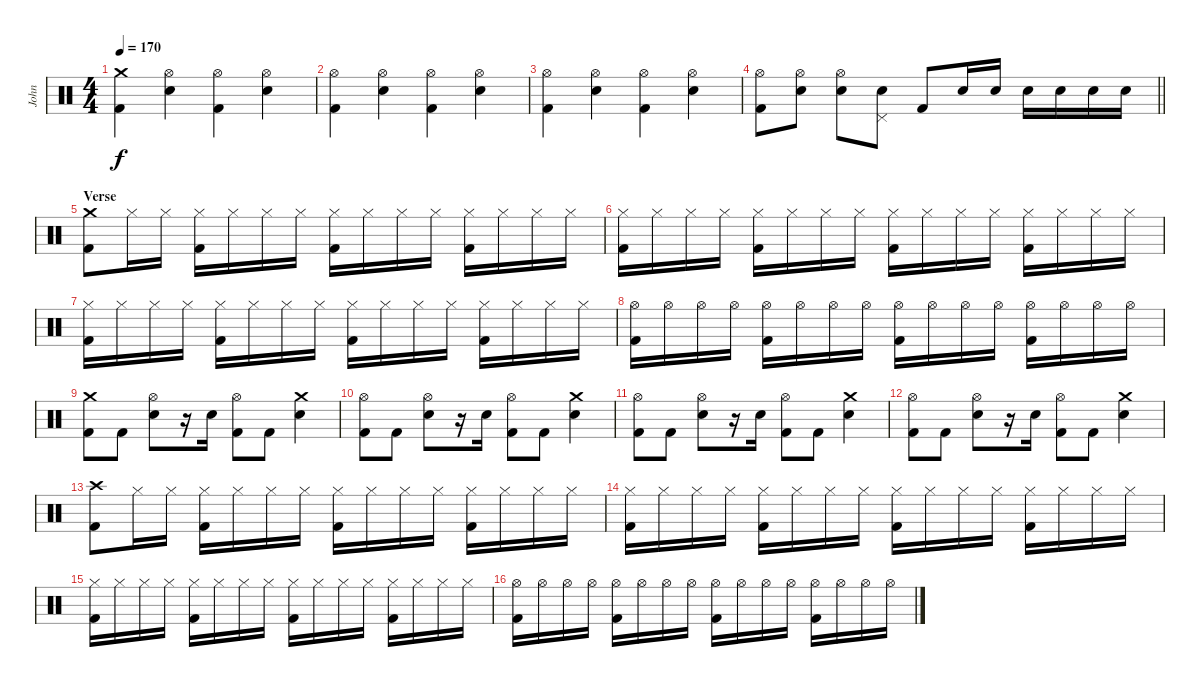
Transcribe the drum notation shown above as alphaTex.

\track ("John" "John") {instrument percussion}
\staff {score}
\articulation defaults
\ts (4 4)
\tempo 170
\clef neutral
\ks c
("Crash medium (hit)" "Kick (hit) 2").4{dy f} ("Hi-Hat (open)" "Electric Snare (hit)").4 ("Hi-Hat (open)" "Kick (hit) 2").4 ("Hi-Hat (open)" "Electric Snare (hit)").4 |
("Hi-Hat (open)" "Kick (hit) 2").4 ("Hi-Hat (open)" "Electric Snare (hit)").4 ("Hi-Hat (open)" "Kick (hit) 2").4 ("Hi-Hat (open)" "Electric Snare (hit)").4 |
("Hi-Hat (open)" "Kick (hit) 2").4 ("Hi-Hat (open)" "Electric Snare (hit)").4 ("Hi-Hat (open)" "Kick (hit) 2").4 ("Hi-Hat (open)" "Electric Snare (hit)").4 |
\barLineRight lightlight
("Hi-Hat (open)" "Kick (hit) 2").8 ("Hi-Hat (open)" "Electric Snare (hit)").8 ("Hi-Hat (open)" "Electric Snare (hit)").8 ("Pedal Hi-Hat (hit)" "Electric Snare (hit)").8 "Kick (hit) 2".8 "Electric Snare (hit)".16 "Electric Snare (hit)".16 "Electric Snare (hit)".16 "Electric Snare (hit)".16 "Electric Snare (hit)".16 "Electric Snare (hit)".16 |
\section ("" "Verse")
("Crash medium (hit)" "Kick (hit) 2").8 "Hi-Hat (closed)".16 "Hi-Hat (closed)".16 ("Hi-Hat (closed)" "Kick (hit) 2").16 "Hi-Hat (closed)".16 "Hi-Hat (closed)".16 "Hi-Hat (closed)".16 ("Hi-Hat (closed)" "Kick (hit) 2").16 "Hi-Hat (closed)".16 "Hi-Hat (closed)".16 "Hi-Hat (closed)".16 ("Hi-Hat (closed)" "Kick (hit) 2").16 "Hi-Hat (closed)".16 "Hi-Hat (closed)".16 "Hi-Hat (closed)".16 |
("Hi-Hat (closed)" "Kick (hit) 2").16 "Hi-Hat (closed)".16 "Hi-Hat (closed)".16 "Hi-Hat (closed)".16 ("Hi-Hat (closed)" "Kick (hit) 2").16 "Hi-Hat (closed)".16 "Hi-Hat (closed)".16 "Hi-Hat (closed)".16 ("Hi-Hat (closed)" "Kick (hit) 2").16 "Hi-Hat (closed)".16 "Hi-Hat (closed)".16 "Hi-Hat (closed)".16 ("Hi-Hat (closed)" "Kick (hit) 2").16 "Hi-Hat (closed)".16 "Hi-Hat (closed)".16 "Hi-Hat (closed)".16 |
("Hi-Hat (closed)" "Kick (hit) 2").16 "Hi-Hat (closed)".16 "Hi-Hat (closed)".16 "Hi-Hat (closed)".16 ("Hi-Hat (closed)" "Kick (hit) 2").16 "Hi-Hat (closed)".16 "Hi-Hat (closed)".16 "Hi-Hat (closed)".16 ("Hi-Hat (closed)" "Kick (hit) 2").16 "Hi-Hat (closed)".16 "Hi-Hat (closed)".16 "Hi-Hat (closed)".16 ("Hi-Hat (closed)" "Kick (hit) 2").16 "Hi-Hat (closed)".16 "Hi-Hat (closed)".16 "Hi-Hat (closed)".16 |
("Hi-Hat (open)" "Kick (hit) 2").16 "Hi-Hat (open)".16 "Hi-Hat (open)".16 "Hi-Hat (open)".16 ("Hi-Hat (open)" "Kick (hit) 2").16 "Hi-Hat (open)".16 "Hi-Hat (open)".16 "Hi-Hat (open)".16 ("Hi-Hat (open)" "Kick (hit) 2").16 "Hi-Hat (open)".16 "Hi-Hat (open)".16 "Hi-Hat (open)".16 ("Hi-Hat (open)" "Kick (hit) 2").16 "Hi-Hat (open)".16 "Hi-Hat (open)".16 "Hi-Hat (open)".16 |
("Crash medium (hit)" "Kick (hit) 2").8 "Kick (hit) 2".8 ("Hi-Hat (open)" "Electric Snare (hit)").8 r.16 "Electric Snare (hit)".16 ("Hi-Hat (open)" "Kick (hit) 2").8 "Kick (hit) 2".8 ("Crash medium (hit)" "Electric Snare (hit)").4 |
("Hi-Hat (open)" "Kick (hit) 2").8 "Kick (hit) 2".8 ("Hi-Hat (open)" "Electric Snare (hit)").8 r.16 "Electric Snare (hit)".16 ("Hi-Hat (open)" "Kick (hit) 2").8 "Kick (hit) 2".8 ("Crash medium (hit)" "Electric Snare (hit)").4 |
("Hi-Hat (open)" "Kick (hit) 2").8 "Kick (hit) 2".8 ("Hi-Hat (open)" "Electric Snare (hit)").8 r.16 "Electric Snare (hit)".16 ("Hi-Hat (open)" "Kick (hit) 2").8 "Kick (hit) 2".8 ("Crash medium (hit)" "Electric Snare (hit)").4 |
("Hi-Hat (open)" "Kick (hit) 2").8 "Kick (hit) 2".8 ("Hi-Hat (open)" "Electric Snare (hit)").8 r.16 "Electric Snare (hit)".16 ("Hi-Hat (open)" "Kick (hit) 2").8 "Kick (hit) 2".8 ("Crash medium (hit)" "Electric Snare (hit)").4 |
("Crash high (hit)" "Kick (hit) 2").8 "Hi-Hat (closed)".16 "Hi-Hat (closed)".16 ("Hi-Hat (closed)" "Kick (hit) 2").16 "Hi-Hat (closed)".16 "Hi-Hat (closed)".16 "Hi-Hat (closed)".16 ("Hi-Hat (closed)" "Kick (hit) 2").16 "Hi-Hat (closed)".16 "Hi-Hat (closed)".16 "Hi-Hat (closed)".16 ("Hi-Hat (closed)" "Kick (hit) 2").16 "Hi-Hat (closed)".16 "Hi-Hat (closed)".16 "Hi-Hat (closed)".16 |
("Hi-Hat (closed)" "Kick (hit) 2").16 "Hi-Hat (closed)".16 "Hi-Hat (closed)".16 "Hi-Hat (closed)".16 ("Hi-Hat (closed)" "Kick (hit) 2").16 "Hi-Hat (closed)".16 "Hi-Hat (closed)".16 "Hi-Hat (closed)".16 ("Hi-Hat (closed)" "Kick (hit) 2").16 "Hi-Hat (closed)".16 "Hi-Hat (closed)".16 "Hi-Hat (closed)".16 ("Hi-Hat (closed)" "Kick (hit) 2").16 "Hi-Hat (closed)".16 "Hi-Hat (closed)".16 "Hi-Hat (closed)".16 |
("Hi-Hat (closed)" "Kick (hit) 2").16 "Hi-Hat (closed)".16 "Hi-Hat (closed)".16 "Hi-Hat (closed)".16 ("Hi-Hat (closed)" "Kick (hit) 2").16 "Hi-Hat (closed)".16 "Hi-Hat (closed)".16 "Hi-Hat (closed)".16 ("Hi-Hat (closed)" "Kick (hit) 2").16 "Hi-Hat (closed)".16 "Hi-Hat (closed)".16 "Hi-Hat (closed)".16 ("Hi-Hat (closed)" "Kick (hit) 2").16 "Hi-Hat (closed)".16 "Hi-Hat (closed)".16 "Hi-Hat (closed)".16 |
("Hi-Hat (open)" "Kick (hit) 2").16 "Hi-Hat (open)".16 "Hi-Hat (open)".16 "Hi-Hat (open)".16 ("Hi-Hat (open)" "Kick (hit) 2").16 "Hi-Hat (open)".16 "Hi-Hat (open)".16 "Hi-Hat (open)".16 ("Hi-Hat (open)" "Kick (hit) 2").16 "Hi-Hat (open)".16 "Hi-Hat (open)".16 "Hi-Hat (open)".16 ("Hi-Hat (open)" "Kick (hit) 2").16 "Hi-Hat (open)".16 "Hi-Hat (open)".16 "Hi-Hat (open)".16
